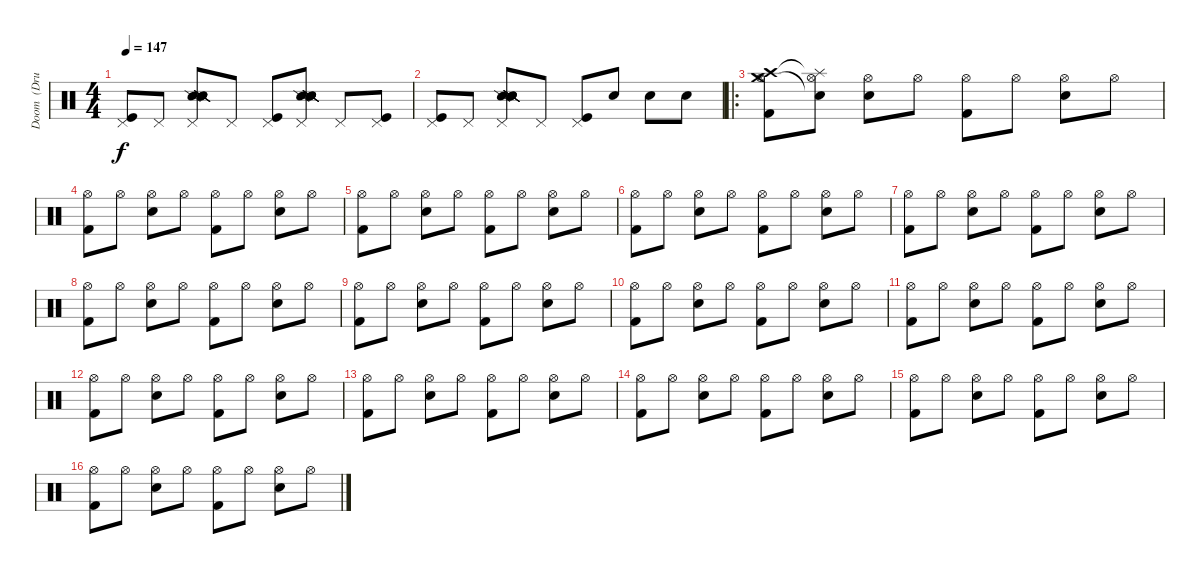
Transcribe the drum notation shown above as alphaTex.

\track ("Doom  (Drums)" "Doom  (Dru") {instrument percussion}
\staff {score}
\articulation defaults
\ts (4 4)
\tempo 147
\clef neutral
\ks c
("Pedal Hi-Hat (hit)" "Kick (hit)").8{dy f} "Pedal Hi-Hat (hit)".8 ("Pedal Hi-Hat (hit)" "Snare (side stick) 2" "Snare (side stick) 2" "Snare (side stick) 2" "Snare (side stick) 2" "Snare (side stick) 2").8 "Pedal Hi-Hat (hit)".8 ("Pedal Hi-Hat (hit)" "Kick (hit)").8 ("Pedal Hi-Hat (hit)" "Snare (side stick) 2" "Snare (side stick) 2" "Snare (side stick) 2" "Snare (side stick) 2" "Snare (side stick) 2").8 "Pedal Hi-Hat (hit)".8 ("Pedal Hi-Hat (hit)" "Kick (hit)").8 |
("Pedal Hi-Hat (hit)" "Kick (hit)").8 "Pedal Hi-Hat (hit)".8 ("Pedal Hi-Hat (hit)" "Snare (side stick) 2" "Snare (side stick) 2" "Snare (side stick) 2" "Snare (side stick) 2" "Snare (side stick) 2").8 "Pedal Hi-Hat (hit)".8 ("Pedal Hi-Hat (hit)" "Kick (hit)").8 "Electric Snare (hit)".8 "Electric Snare (hit)".8 "Electric Snare (hit)".8 |
\ro
("Crash high (hit)" "Hi-Hat (open)" "Crash medium (hit)" "Kick (hit) 2").8 ("Splash (hit)"{t} "Hi-Hat (open)" "Snare (hit)"{t}).8 ("Hi-Hat (open)" "Electric Snare (hit)").8 "Hi-Hat (open)".8 ("Hi-Hat (open)" "Kick (hit) 2").8 "Hi-Hat (open)".8 ("Hi-Hat (open)" "Electric Snare (hit)").8 "Hi-Hat (open)".8 |
("Hi-Hat (open)" "Kick (hit) 2").8 "Hi-Hat (open)".8 ("Hi-Hat (open)" "Electric Snare (hit)").8 "Hi-Hat (open)".8 ("Hi-Hat (open)" "Kick (hit) 2").8 "Hi-Hat (open)".8 ("Hi-Hat (open)" "Electric Snare (hit)").8 "Hi-Hat (open)".8 |
("Hi-Hat (open)" "Kick (hit) 2").8 "Hi-Hat (open)".8 ("Hi-Hat (open)" "Electric Snare (hit)").8 "Hi-Hat (open)".8 ("Hi-Hat (open)" "Kick (hit) 2").8 "Hi-Hat (open)".8 ("Hi-Hat (open)" "Electric Snare (hit)").8 "Hi-Hat (open)".8 |
("Hi-Hat (open)" "Kick (hit) 2").8 "Hi-Hat (open)".8 ("Hi-Hat (open)" "Electric Snare (hit)").8 "Hi-Hat (open)".8 ("Hi-Hat (open)" "Kick (hit) 2").8 "Hi-Hat (open)".8 ("Hi-Hat (open)" "Electric Snare (hit)").8 "Hi-Hat (open)".8 |
("Hi-Hat (open)" "Kick (hit) 2").8 "Hi-Hat (open)".8 ("Hi-Hat (open)" "Electric Snare (hit)").8 "Hi-Hat (open)".8 ("Hi-Hat (open)" "Kick (hit) 2").8 "Hi-Hat (open)".8 ("Hi-Hat (open)" "Electric Snare (hit)").8 "Hi-Hat (open)".8 |
("Hi-Hat (open)" "Kick (hit) 2").8 "Hi-Hat (open)".8 ("Hi-Hat (open)" "Electric Snare (hit)").8 "Hi-Hat (open)".8 ("Hi-Hat (open)" "Kick (hit) 2").8 "Hi-Hat (open)".8 ("Hi-Hat (open)" "Electric Snare (hit)").8 "Hi-Hat (open)".8 |
("Hi-Hat (open)" "Kick (hit) 2").8 "Hi-Hat (open)".8 ("Hi-Hat (open)" "Electric Snare (hit)").8 "Hi-Hat (open)".8 ("Hi-Hat (open)" "Kick (hit) 2").8 "Hi-Hat (open)".8 ("Hi-Hat (open)" "Electric Snare (hit)").8 "Hi-Hat (open)".8 |
("Hi-Hat (open)" "Kick (hit) 2").8 "Hi-Hat (open)".8 ("Hi-Hat (open)" "Electric Snare (hit)").8 "Hi-Hat (open)".8 ("Hi-Hat (open)" "Kick (hit) 2").8 "Hi-Hat (open)".8 ("Hi-Hat (open)" "Electric Snare (hit)").8 "Hi-Hat (open)".8 |
("Hi-Hat (open)" "Kick (hit) 2").8 "Hi-Hat (open)".8 ("Hi-Hat (open)" "Electric Snare (hit)").8 "Hi-Hat (open)".8 ("Hi-Hat (open)" "Kick (hit) 2").8 "Hi-Hat (open)".8 ("Hi-Hat (open)" "Electric Snare (hit)").8 "Hi-Hat (open)".8 |
("Hi-Hat (open)" "Kick (hit) 2").8 "Hi-Hat (open)".8 ("Hi-Hat (open)" "Electric Snare (hit)").8 "Hi-Hat (open)".8 ("Hi-Hat (open)" "Kick (hit) 2").8 "Hi-Hat (open)".8 ("Hi-Hat (open)" "Electric Snare (hit)").8 "Hi-Hat (open)".8 |
("Hi-Hat (open)" "Kick (hit) 2").8 "Hi-Hat (open)".8 ("Hi-Hat (open)" "Electric Snare (hit)").8 "Hi-Hat (open)".8 ("Hi-Hat (open)" "Kick (hit) 2").8 "Hi-Hat (open)".8 ("Hi-Hat (open)" "Electric Snare (hit)").8 "Hi-Hat (open)".8 |
("Hi-Hat (open)" "Kick (hit) 2").8 "Hi-Hat (open)".8 ("Hi-Hat (open)" "Electric Snare (hit)").8 "Hi-Hat (open)".8 ("Hi-Hat (open)" "Kick (hit) 2").8 "Hi-Hat (open)".8 ("Hi-Hat (open)" "Electric Snare (hit)").8 "Hi-Hat (open)".8 |
("Hi-Hat (open)" "Kick (hit) 2").8 "Hi-Hat (open)".8 ("Hi-Hat (open)" "Electric Snare (hit)").8 "Hi-Hat (open)".8 ("Hi-Hat (open)" "Kick (hit) 2").8 "Hi-Hat (open)".8 ("Hi-Hat (open)" "Electric Snare (hit)").8 "Hi-Hat (open)".8 |
("Hi-Hat (open)" "Kick (hit) 2").8 "Hi-Hat (open)".8 ("Hi-Hat (open)" "Electric Snare (hit)").8 "Hi-Hat (open)".8 ("Hi-Hat (open)" "Kick (hit) 2").8 "Hi-Hat (open)".8 ("Hi-Hat (open)" "Electric Snare (hit)").8 "Hi-Hat (open)".8
